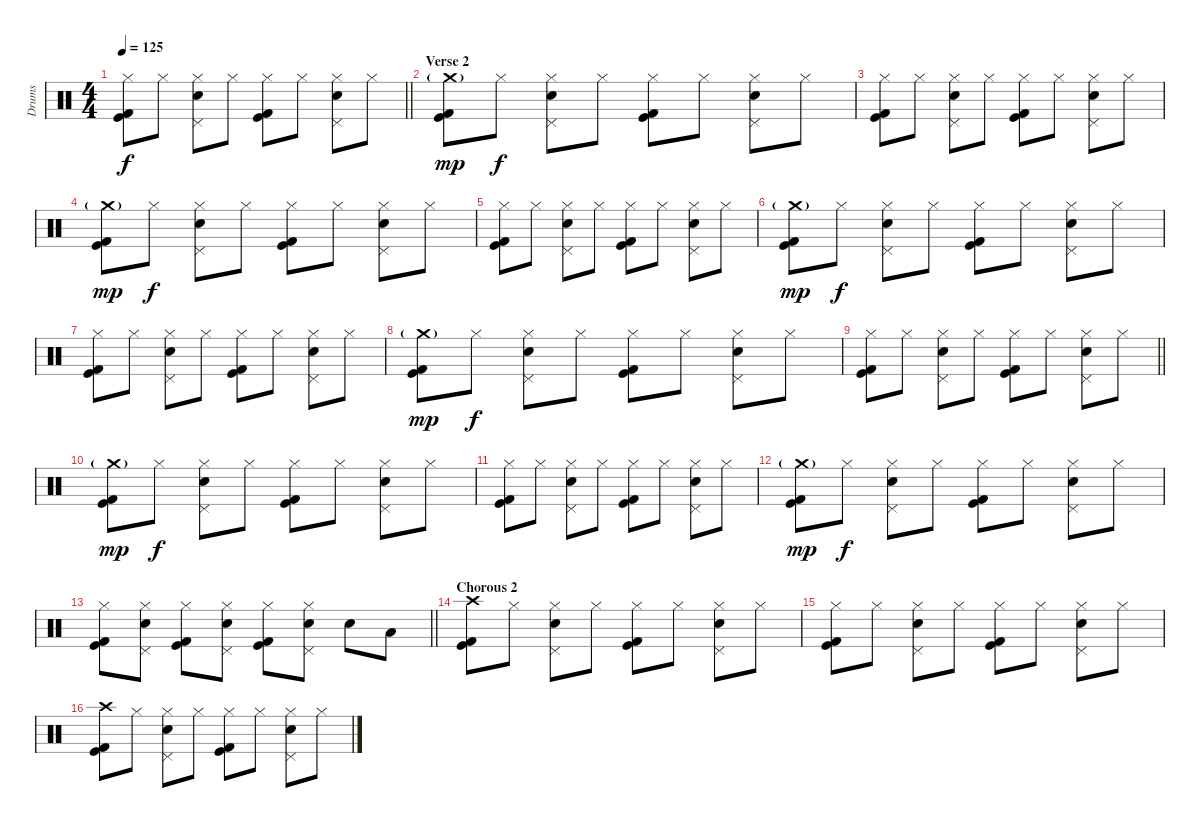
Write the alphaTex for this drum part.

\track ("Drums" "Drums") {instrument percussion}
\staff {score}
\articulation defaults
\ts (4 4)
\tempo 125
\clef neutral
\barLineRight lightlight
\ks c
("Hi-Hat (closed)" "Kick (hit)" "Kick (hit) 2").8{dy f} "Hi-Hat (closed)".8 ("Hi-Hat (closed)" "Pedal Hi-Hat (hit)" "Electric Snare (hit)").8 "Hi-Hat (closed)".8 ("Hi-Hat (closed)" "Kick (hit)" "Kick (hit) 2").8 "Hi-Hat (closed)".8 ("Hi-Hat (closed)" "Pedal Hi-Hat (hit)" "Electric Snare (hit)").8 "Hi-Hat (closed)".8 |
\section ("" "Verse 2")
("Crash medium (hit)"{g} "Kick (hit)" "Kick (hit) 2").8{dy mp} "Hi-Hat (closed)".8{dy f} ("Hi-Hat (closed)" "Pedal Hi-Hat (hit)" "Electric Snare (hit)").8 "Hi-Hat (closed)".8 ("Hi-Hat (closed)" "Kick (hit)" "Kick (hit) 2").8 "Hi-Hat (closed)".8 ("Hi-Hat (closed)" "Pedal Hi-Hat (hit)" "Electric Snare (hit)").8 "Hi-Hat (closed)".8 |
("Hi-Hat (closed)" "Kick (hit)" "Kick (hit) 2").8 "Hi-Hat (closed)".8 ("Hi-Hat (closed)" "Pedal Hi-Hat (hit)" "Electric Snare (hit)").8 "Hi-Hat (closed)".8 ("Hi-Hat (closed)" "Kick (hit)" "Kick (hit) 2").8 "Hi-Hat (closed)".8 ("Hi-Hat (closed)" "Pedal Hi-Hat (hit)" "Electric Snare (hit)").8 "Hi-Hat (closed)".8 |
("Crash medium (hit)"{g} "Kick (hit)" "Kick (hit) 2").8{dy mp} "Hi-Hat (closed)".8{dy f} ("Hi-Hat (closed)" "Pedal Hi-Hat (hit)" "Electric Snare (hit)").8 "Hi-Hat (closed)".8 ("Hi-Hat (closed)" "Kick (hit)" "Kick (hit) 2").8 "Hi-Hat (closed)".8 ("Hi-Hat (closed)" "Pedal Hi-Hat (hit)" "Electric Snare (hit)").8 "Hi-Hat (closed)".8 |
("Hi-Hat (closed)" "Kick (hit)" "Kick (hit) 2").8 "Hi-Hat (closed)".8 ("Hi-Hat (closed)" "Pedal Hi-Hat (hit)" "Electric Snare (hit)").8 "Hi-Hat (closed)".8 ("Hi-Hat (closed)" "Kick (hit)" "Kick (hit) 2").8 "Hi-Hat (closed)".8 ("Hi-Hat (closed)" "Pedal Hi-Hat (hit)" "Electric Snare (hit)").8 "Hi-Hat (closed)".8 |
("Crash medium (hit)"{g} "Kick (hit)" "Kick (hit) 2").8{dy mp} "Hi-Hat (closed)".8{dy f} ("Hi-Hat (closed)" "Pedal Hi-Hat (hit)" "Electric Snare (hit)").8 "Hi-Hat (closed)".8 ("Hi-Hat (closed)" "Kick (hit)" "Kick (hit) 2").8 "Hi-Hat (closed)".8 ("Hi-Hat (closed)" "Pedal Hi-Hat (hit)" "Electric Snare (hit)").8 "Hi-Hat (closed)".8 |
("Hi-Hat (closed)" "Kick (hit)" "Kick (hit) 2").8 "Hi-Hat (closed)".8 ("Hi-Hat (closed)" "Pedal Hi-Hat (hit)" "Electric Snare (hit)").8 "Hi-Hat (closed)".8 ("Hi-Hat (closed)" "Kick (hit)" "Kick (hit) 2").8 "Hi-Hat (closed)".8 ("Hi-Hat (closed)" "Pedal Hi-Hat (hit)" "Electric Snare (hit)").8 "Hi-Hat (closed)".8 |
("Crash medium (hit)"{g} "Kick (hit)" "Kick (hit) 2").8{dy mp} "Hi-Hat (closed)".8{dy f} ("Hi-Hat (closed)" "Pedal Hi-Hat (hit)" "Electric Snare (hit)").8 "Hi-Hat (closed)".8 ("Hi-Hat (closed)" "Kick (hit)" "Kick (hit) 2").8 "Hi-Hat (closed)".8 ("Hi-Hat (closed)" "Pedal Hi-Hat (hit)" "Electric Snare (hit)").8 "Hi-Hat (closed)".8 |
\barLineRight lightlight
("Hi-Hat (closed)" "Kick (hit)" "Kick (hit) 2").8 "Hi-Hat (closed)".8 ("Hi-Hat (closed)" "Pedal Hi-Hat (hit)" "Electric Snare (hit)").8 "Hi-Hat (closed)".8 ("Hi-Hat (closed)" "Kick (hit)" "Kick (hit) 2").8 "Hi-Hat (closed)".8 ("Hi-Hat (closed)" "Pedal Hi-Hat (hit)" "Electric Snare (hit)").8 "Hi-Hat (closed)".8 |
\section ("" "")
("Crash medium (hit)"{g} "Kick (hit)" "Kick (hit) 2").8{dy mp} "Hi-Hat (closed)".8{dy f} ("Hi-Hat (closed)" "Pedal Hi-Hat (hit)" "Electric Snare (hit)").8 "Hi-Hat (closed)".8 ("Hi-Hat (closed)" "Kick (hit)" "Kick (hit) 2").8 "Hi-Hat (closed)".8 ("Hi-Hat (closed)" "Pedal Hi-Hat (hit)" "Electric Snare (hit)").8 "Hi-Hat (closed)".8 |
("Hi-Hat (closed)" "Kick (hit)" "Kick (hit) 2").8 "Hi-Hat (closed)".8 ("Hi-Hat (closed)" "Pedal Hi-Hat (hit)" "Electric Snare (hit)").8 "Hi-Hat (closed)".8 ("Hi-Hat (closed)" "Kick (hit)" "Kick (hit) 2").8 "Hi-Hat (closed)".8 ("Hi-Hat (closed)" "Pedal Hi-Hat (hit)" "Electric Snare (hit)").8 "Hi-Hat (closed)".8 |
("Crash medium (hit)"{g} "Kick (hit)" "Kick (hit) 2").8{dy mp} "Hi-Hat (closed)".8{dy f} ("Hi-Hat (closed)" "Pedal Hi-Hat (hit)" "Electric Snare (hit)").8 "Hi-Hat (closed)".8 ("Hi-Hat (closed)" "Kick (hit)" "Kick (hit) 2").8 "Hi-Hat (closed)".8 ("Hi-Hat (closed)" "Pedal Hi-Hat (hit)" "Electric Snare (hit)").8 "Hi-Hat (closed)".8 |
\barLineRight lightlight
("Hi-Hat (closed)" "Kick (hit)" "Kick (hit) 2").8 ("Hi-Hat (closed)" "Pedal Hi-Hat (hit)" "Electric Snare (hit)").8 ("Hi-Hat (closed)" "Kick (hit)" "Kick (hit) 2").8 ("Hi-Hat (closed)" "Pedal Hi-Hat (hit)" "Electric Snare (hit)").8 ("Hi-Hat (closed)" "Kick (hit)" "Kick (hit) 2").8 ("Hi-Hat (closed)" "Pedal Hi-Hat (hit)" "Electric Snare (hit)").8 "Electric Snare (hit)".8 "Low Tom (hit)".8 |
\section ("" "Chorous 2")
("Crash high (hit)" "Kick (hit)" "Kick (hit) 2").8 "Hi-Hat (closed)".8 ("Hi-Hat (closed)" "Pedal Hi-Hat (hit)" "Electric Snare (hit)").8 "Hi-Hat (closed)".8 ("Hi-Hat (closed)" "Kick (hit)" "Kick (hit) 2").8 "Hi-Hat (closed)".8 ("Hi-Hat (closed)" "Pedal Hi-Hat (hit)" "Electric Snare (hit)").8 "Hi-Hat (closed)".8 |
("Hi-Hat (closed)" "Kick (hit)" "Kick (hit) 2").8 "Hi-Hat (closed)".8 ("Hi-Hat (closed)" "Pedal Hi-Hat (hit)" "Electric Snare (hit)").8 "Hi-Hat (closed)".8 ("Hi-Hat (closed)" "Kick (hit)" "Kick (hit) 2").8 "Hi-Hat (closed)".8 ("Hi-Hat (closed)" "Pedal Hi-Hat (hit)" "Electric Snare (hit)").8 "Hi-Hat (closed)".8 |
("Crash high (hit)" "Kick (hit)" "Kick (hit) 2").8 "Hi-Hat (closed)".8 ("Hi-Hat (closed)" "Pedal Hi-Hat (hit)" "Electric Snare (hit)").8 "Hi-Hat (closed)".8 ("Hi-Hat (closed)" "Kick (hit)" "Kick (hit) 2").8 "Hi-Hat (closed)".8 ("Hi-Hat (closed)" "Pedal Hi-Hat (hit)" "Electric Snare (hit)").8 "Hi-Hat (closed)".8
